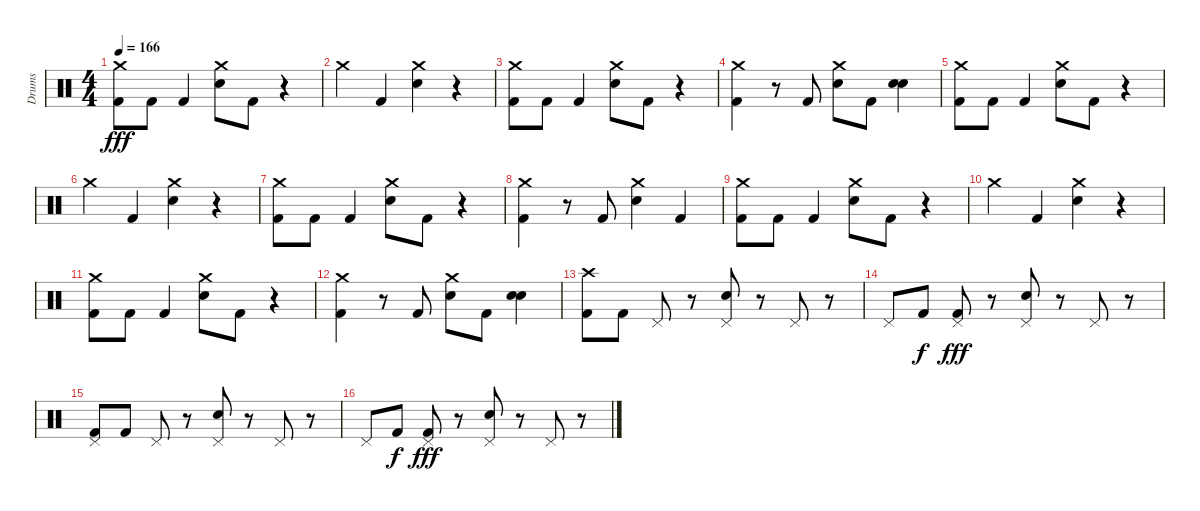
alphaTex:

\track ("Drums" "Drums") {instrument percussion}
\staff {score}
\articulation defaults
\ts (4 4)
\tempo 166
\clef neutral
\ks c
("Crash medium (hit)" "Kick (hit) 2").8{dy fff} "Kick (hit) 2".8 "Kick (hit) 2".4 ("Crash medium (hit)" "Snare (hit) 2").8 "Kick (hit) 2".8 r.4 |
"Crash medium (hit)".4 "Kick (hit) 2".4 ("Crash medium (hit)" "Snare (hit) 2").4 r.4 |
("Crash medium (hit)" "Kick (hit) 2").8 "Kick (hit) 2".8 "Kick (hit) 2".4 ("Crash medium (hit)" "Snare (hit) 2").8 "Kick (hit) 2".8 r.4 |
("Crash medium (hit)" "Kick (hit) 2").4 r.8 "Kick (hit) 2".8 ("Crash medium (hit)" "Snare (hit) 2").8 "Kick (hit) 2".8 ("Snare (hit) 2" "Snare (hit) 2").4{bd 60} |
("Crash medium (hit)" "Kick (hit) 2").8 "Kick (hit) 2".8 "Kick (hit) 2".4 ("Crash medium (hit)" "Snare (hit) 2").8 "Kick (hit) 2".8 r.4 |
"Crash medium (hit)".4 "Kick (hit) 2".4 ("Crash medium (hit)" "Snare (hit) 2").4 r.4 |
("Crash medium (hit)" "Kick (hit) 2").8 "Kick (hit) 2".8 "Kick (hit) 2".4 ("Crash medium (hit)" "Snare (hit) 2").8 "Kick (hit) 2".8 r.4 |
("Crash medium (hit)" "Kick (hit) 2").4 r.8 "Kick (hit) 2".8 ("Crash medium (hit)" "Snare (hit) 2").4 "Kick (hit) 2".4 |
("Crash medium (hit)" "Kick (hit) 2").8 "Kick (hit) 2".8 "Kick (hit) 2".4 ("Crash medium (hit)" "Snare (hit) 2").8 "Kick (hit) 2".8 r.4 |
"Crash medium (hit)".4 "Kick (hit) 2".4 ("Crash medium (hit)" "Snare (hit) 2").4 r.4 |
("Crash medium (hit)" "Kick (hit) 2").8 "Kick (hit) 2".8 "Kick (hit) 2".4 ("Crash medium (hit)" "Snare (hit) 2").8 "Kick (hit) 2".8 r.4 |
("Crash medium (hit)" "Kick (hit) 2").4 r.8 "Kick (hit) 2".8 ("Crash medium (hit)" "Snare (hit) 2").8 "Kick (hit) 2".8 ("Snare (hit) 2" "Snare (hit) 2").4{bd 60} |
("Crash high (hit)" "Kick (hit) 2").8 "Kick (hit) 2".8 "Pedal Hi-Hat (hit)".8 r.8 ("Pedal Hi-Hat (hit)" "Snare (hit) 2").8 r.8 "Pedal Hi-Hat (hit)".8 r.8 |
"Pedal Hi-Hat (hit)".8 "Kick (hit) 2".8{dy f} ("Pedal Hi-Hat (hit)" "Kick (hit) 2").8{dy fff} r.8 ("Pedal Hi-Hat (hit)" "Snare (hit) 2").8 r.8 "Pedal Hi-Hat (hit)".8 r.8 |
("Pedal Hi-Hat (hit)" "Kick (hit) 2").8 "Kick (hit) 2".8 "Pedal Hi-Hat (hit)".8 r.8 ("Pedal Hi-Hat (hit)" "Snare (hit) 2").8 r.8 "Pedal Hi-Hat (hit)".8 r.8 |
"Pedal Hi-Hat (hit)".8 "Kick (hit) 2".8{dy f} ("Pedal Hi-Hat (hit)" "Kick (hit) 2").8{dy fff} r.8 ("Pedal Hi-Hat (hit)" "Snare (hit) 2").8 r.8 "Pedal Hi-Hat (hit)".8 r.8
